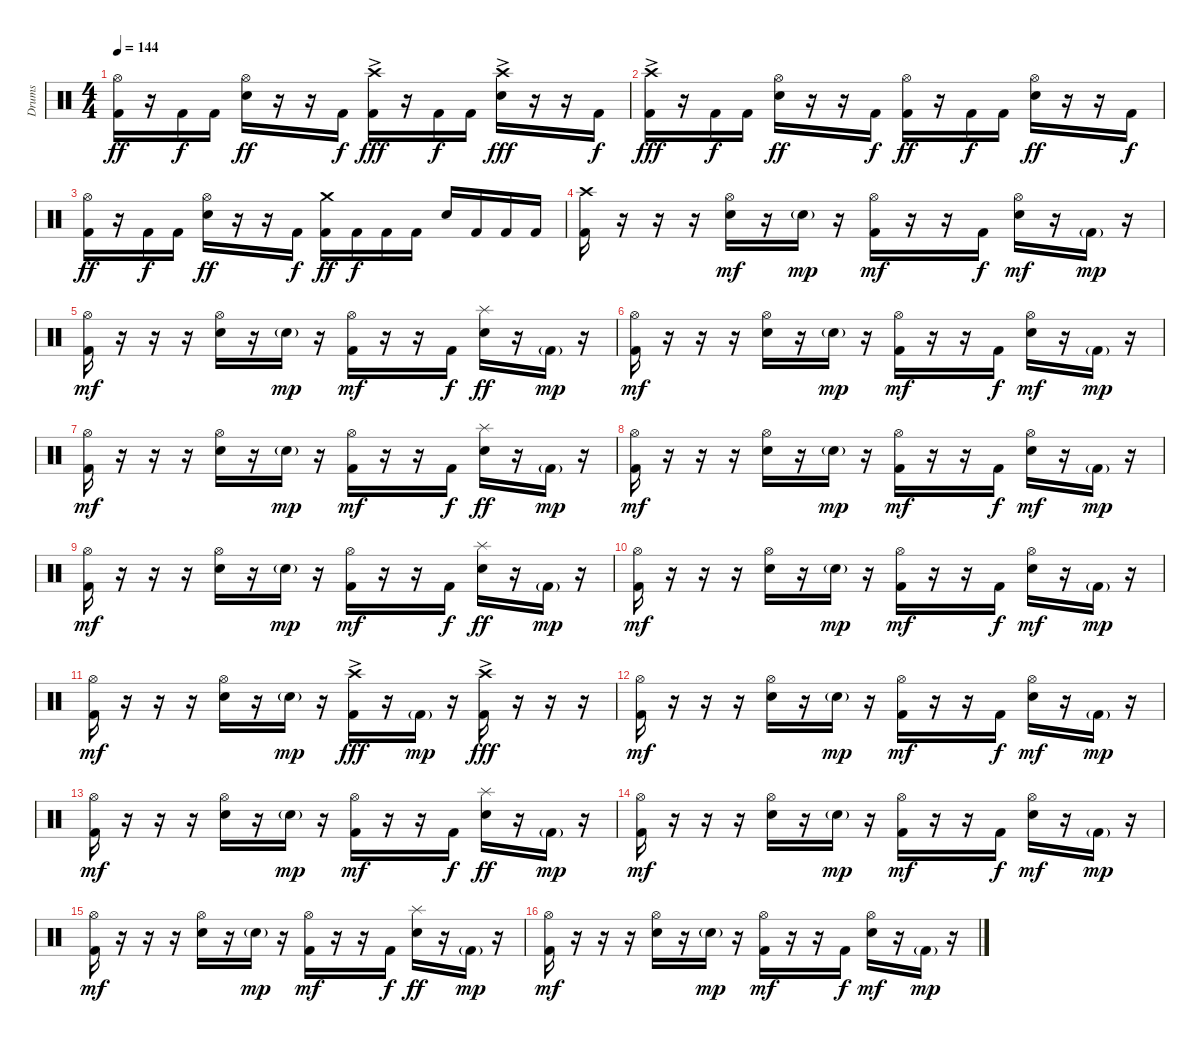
\track ("Drums" "Drums") {instrument percussion}
\staff {score}
\articulation defaults
\ts (4 4)
\tempo 144
\clef neutral
\ks c
("Hi-Hat (open)" "Kick (hit) 2").16{dy ff} r.16 "Kick (hit) 2".16{dy f} "Kick (hit) 2".16 ("Hi-Hat (open)" "Electric Snare (hit)").16{dy ff} r.16 r.16 "Kick (hit) 2".16{dy f} ("Crash high (hit)"{ac} "Kick (hit) 2").16{dy fff} r.16 "Kick (hit) 2".16{dy f} "Kick (hit) 2".16 ("Crash high (hit)"{ac} "Electric Snare (hit)").16{dy fff} r.16 r.16 "Kick (hit) 2".16{dy f} |
("Crash high (hit)"{ac} "Kick (hit) 2").16{dy fff} r.16 "Kick (hit) 2".16{dy f} "Kick (hit) 2".16 ("Hi-Hat (open)" "Electric Snare (hit)").16{dy ff} r.16 r.16 "Kick (hit) 2".16{dy f} ("Hi-Hat (open)" "Kick (hit) 2").16{dy ff} r.16 "Kick (hit) 2".16{dy f} "Kick (hit) 2".16 ("Hi-Hat (open)" "Electric Snare (hit)").16{dy ff} r.16 r.16 "Kick (hit) 2".16{dy f} |
("Hi-Hat (open)" "Kick (hit) 2").16{dy ff} r.16 "Kick (hit) 2".16{dy f} "Kick (hit) 2".16 ("Hi-Hat (open)" "Electric Snare (hit)").16{dy ff} r.16 r.16 "Kick (hit) 2".16{dy f} ("Crash medium (hit)" "Kick (hit) 2").16{dy ff} "Kick (hit) 2".16{dy f} "Kick (hit) 2".16 "Kick (hit) 2".16 "Electric Snare (hit)".16 "Kick (hit) 2".16 "Kick (hit) 2".16 "Kick (hit) 2".16 |
("Crash high (hit)" "Kick (hit) 2").16 r.16 r.16 r.16 ("Hi-Hat (open)" "Electric Snare (hit)").16{dy mf} r.16 "Electric Snare (hit)"{g}.16{dy mp} r.16 ("Hi-Hat (open)" "Kick (hit) 2").16{dy mf} r.16 r.16 "Kick (hit) 2".16{dy f} ("Hi-Hat (open)" "Electric Snare (hit)").16{dy mf} r.16 "Kick (hit) 2"{g}.16{dy mp} r.16 |
("Hi-Hat (open)" "Kick (hit) 2").16{dy mf} r.16 r.16 r.16 ("Hi-Hat (open)" "Electric Snare (hit)").16 r.16 "Electric Snare (hit)"{g}.16{dy mp} r.16 ("Hi-Hat (open)" "Kick (hit) 2").16{dy mf} r.16 r.16 "Kick (hit) 2".16{dy f} ("Splash (hit)" "Electric Snare (hit)").16{dy ff} r.16 "Kick (hit) 2"{g}.16{dy mp} r.16 |
("Hi-Hat (open)" "Kick (hit) 2").16{dy mf} r.16 r.16 r.16 ("Hi-Hat (open)" "Electric Snare (hit)").16 r.16 "Electric Snare (hit)"{g}.16{dy mp} r.16 ("Hi-Hat (open)" "Kick (hit) 2").16{dy mf} r.16 r.16 "Kick (hit) 2".16{dy f} ("Hi-Hat (open)" "Electric Snare (hit)").16{dy mf} r.16 "Kick (hit) 2"{g}.16{dy mp} r.16 |
("Hi-Hat (open)" "Kick (hit) 2").16{dy mf} r.16 r.16 r.16 ("Hi-Hat (open)" "Electric Snare (hit)").16 r.16 "Electric Snare (hit)"{g}.16{dy mp} r.16 ("Hi-Hat (open)" "Kick (hit) 2").16{dy mf} r.16 r.16 "Kick (hit) 2".16{dy f} ("Splash (hit)" "Electric Snare (hit)").16{dy ff} r.16 "Kick (hit) 2"{g}.16{dy mp} r.16 |
("Hi-Hat (open)" "Kick (hit) 2").16{dy mf} r.16 r.16 r.16 ("Hi-Hat (open)" "Electric Snare (hit)").16 r.16 "Electric Snare (hit)"{g}.16{dy mp} r.16 ("Hi-Hat (open)" "Kick (hit) 2").16{dy mf} r.16 r.16 "Kick (hit) 2".16{dy f} ("Hi-Hat (open)" "Electric Snare (hit)").16{dy mf} r.16 "Kick (hit) 2"{g}.16{dy mp} r.16 |
("Hi-Hat (open)" "Kick (hit) 2").16{dy mf} r.16 r.16 r.16 ("Hi-Hat (open)" "Electric Snare (hit)").16 r.16 "Electric Snare (hit)"{g}.16{dy mp} r.16 ("Hi-Hat (open)" "Kick (hit) 2").16{dy mf} r.16 r.16 "Kick (hit) 2".16{dy f} ("Splash (hit)" "Electric Snare (hit)").16{dy ff} r.16 "Kick (hit) 2"{g}.16{dy mp} r.16 |
("Hi-Hat (open)" "Kick (hit) 2").16{dy mf} r.16 r.16 r.16 ("Hi-Hat (open)" "Electric Snare (hit)").16 r.16 "Electric Snare (hit)"{g}.16{dy mp} r.16 ("Hi-Hat (open)" "Kick (hit) 2").16{dy mf} r.16 r.16 "Kick (hit) 2".16{dy f} ("Hi-Hat (open)" "Electric Snare (hit)").16{dy mf} r.16 "Kick (hit) 2"{g}.16{dy mp} r.16 |
("Hi-Hat (open)" "Kick (hit) 2").16{dy mf} r.16 r.16 r.16 ("Hi-Hat (open)" "Electric Snare (hit)").16 r.16 "Electric Snare (hit)"{g}.16{dy mp} r.16 ("Crash high (hit)"{ac} "Kick (hit) 2"{ac}).16{dy fff} r.16 "Kick (hit) 2"{g}.16{dy mp} r.16 ("Crash high (hit)"{ac} "Kick (hit) 2"{ac}).16{dy fff} r.16 r.16 r.16 |
("Hi-Hat (open)" "Kick (hit) 2").16{dy mf} r.16 r.16 r.16 ("Hi-Hat (open)" "Electric Snare (hit)").16 r.16 "Electric Snare (hit)"{g}.16{dy mp} r.16 ("Hi-Hat (open)" "Kick (hit) 2").16{dy mf} r.16 r.16 "Kick (hit) 2".16{dy f} ("Hi-Hat (open)" "Electric Snare (hit)").16{dy mf} r.16 "Kick (hit) 2"{g}.16{dy mp} r.16 |
("Hi-Hat (open)" "Kick (hit) 2").16{dy mf} r.16 r.16 r.16 ("Hi-Hat (open)" "Electric Snare (hit)").16 r.16 "Electric Snare (hit)"{g}.16{dy mp} r.16 ("Hi-Hat (open)" "Kick (hit) 2").16{dy mf} r.16 r.16 "Kick (hit) 2".16{dy f} ("Splash (hit)" "Electric Snare (hit)").16{dy ff} r.16 "Kick (hit) 2"{g}.16{dy mp} r.16 |
("Hi-Hat (open)" "Kick (hit) 2").16{dy mf} r.16 r.16 r.16 ("Hi-Hat (open)" "Electric Snare (hit)").16 r.16 "Electric Snare (hit)"{g}.16{dy mp} r.16 ("Hi-Hat (open)" "Kick (hit) 2").16{dy mf} r.16 r.16 "Kick (hit) 2".16{dy f} ("Hi-Hat (open)" "Electric Snare (hit)").16{dy mf} r.16 "Kick (hit) 2"{g}.16{dy mp} r.16 |
("Hi-Hat (open)" "Kick (hit) 2").16{dy mf} r.16 r.16 r.16 ("Hi-Hat (open)" "Electric Snare (hit)").16 r.16 "Electric Snare (hit)"{g}.16{dy mp} r.16 ("Hi-Hat (open)" "Kick (hit) 2").16{dy mf} r.16 r.16 "Kick (hit) 2".16{dy f} ("Splash (hit)" "Electric Snare (hit)").16{dy ff} r.16 "Kick (hit) 2"{g}.16{dy mp} r.16 |
("Hi-Hat (open)" "Kick (hit) 2").16{dy mf} r.16 r.16 r.16 ("Hi-Hat (open)" "Electric Snare (hit)").16 r.16 "Electric Snare (hit)"{g}.16{dy mp} r.16 ("Hi-Hat (open)" "Kick (hit) 2").16{dy mf} r.16 r.16 "Kick (hit) 2".16{dy f} ("Hi-Hat (open)" "Electric Snare (hit)").16{dy mf} r.16 "Kick (hit) 2"{g}.16{dy mp} r.16
